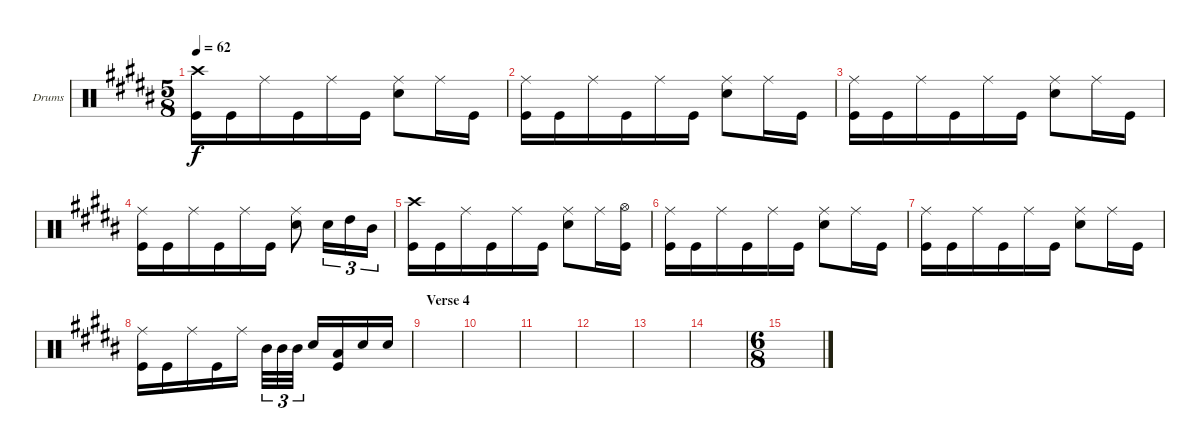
\defaultSystemsLayout 4
\bracketExtendMode groupsimilarinstruments
\firstSystemTrackNameOrientation horizontal
\otherSystemsTrackNameOrientation horizontal
\track ("Drums" "Drums") {instrument percussion}
\staff {score}
\articulation defaults
\ts (5 8)
\tempo 62
\clef neutral
\ks g#minor
("Kick (hit)" "Crash high (hit)").16{dy f} "Kick (hit)".16 "Ride (middle)".16 "Kick (hit)".16 "Ride (middle)".16 "Kick (hit)".16 ("Snare (hit) 2" "Ride (middle)").8 "Ride (middle)".16 "Kick (hit)".16 |
("Kick (hit)" "Ride (middle)").16 "Kick (hit)".16 "Ride (middle)".16 "Kick (hit)".16 "Ride (middle)".16 "Kick (hit)".16 ("Snare (hit) 2" "Ride (middle)").8 "Ride (middle)".16 "Kick (hit)".16 |
("Kick (hit)" "Ride (middle)").16 "Kick (hit)".16 "Ride (middle)".16 "Kick (hit)".16 "Ride (middle)".16 "Kick (hit)".16 ("Snare (hit) 2" "Ride (middle)").8 "Ride (middle)".16 "Kick (hit)".16 |
("Kick (hit)" "Ride (middle)").16 "Kick (hit)".16 "Ride (middle)".16 "Kick (hit)".16 "Ride (middle)".16 "Kick (hit)".16 ("Snare (hit) 2" "Ride (middle)").8 "Snare (hit) 2".16{tu (3 2)} "High Tom (hit)".16{tu (3 2)} "Mid Tom (hit)".16{tu (3 2)} |
("Kick (hit)" "Crash high (hit)").16 "Kick (hit)".16 "Ride (middle)".16 "Kick (hit)".16 "Ride (middle)".16 "Kick (hit)".16 ("Snare (hit) 2" "Ride (middle)").8 "Ride (middle)".16 ("Kick (hit)" "Hi-Hat (open)").16 |
("Kick (hit)" "Ride (middle)").16 "Kick (hit)".16 "Ride (middle)".16 "Kick (hit)".16 "Ride (middle)".16 "Kick (hit)".16 ("Snare (hit) 2" "Ride (middle)").8 "Ride (middle)".16 "Kick (hit)".16 |
("Kick (hit)" "Ride (middle)").16 "Kick (hit)".16 "Ride (middle)".16 "Kick (hit)".16 "Ride (middle)".16 "Kick (hit)".16 ("Snare (hit) 2" "Ride (middle)").8 "Ride (middle)".16 "Kick (hit)".16 |
("Kick (hit)" "Ride (middle)").16 "Kick (hit)".16 "Ride (middle)".16 "Kick (hit)".16 "Ride (middle)".16 "Mid Tom (hit)".32{tu (3 2)} "Mid Tom (hit)".32{tu (3 2)} "Mid Tom (hit)".32{tu (3 2)} "Snare (hit) 2".16 ("Kick (hit)" "Low Tom (hit)").16 "Snare (hit) 2".16 "Snare (hit) 2".16 |
\section ("" "Verse 4")
|
|
|
|
|
|
\ts (6 8)
